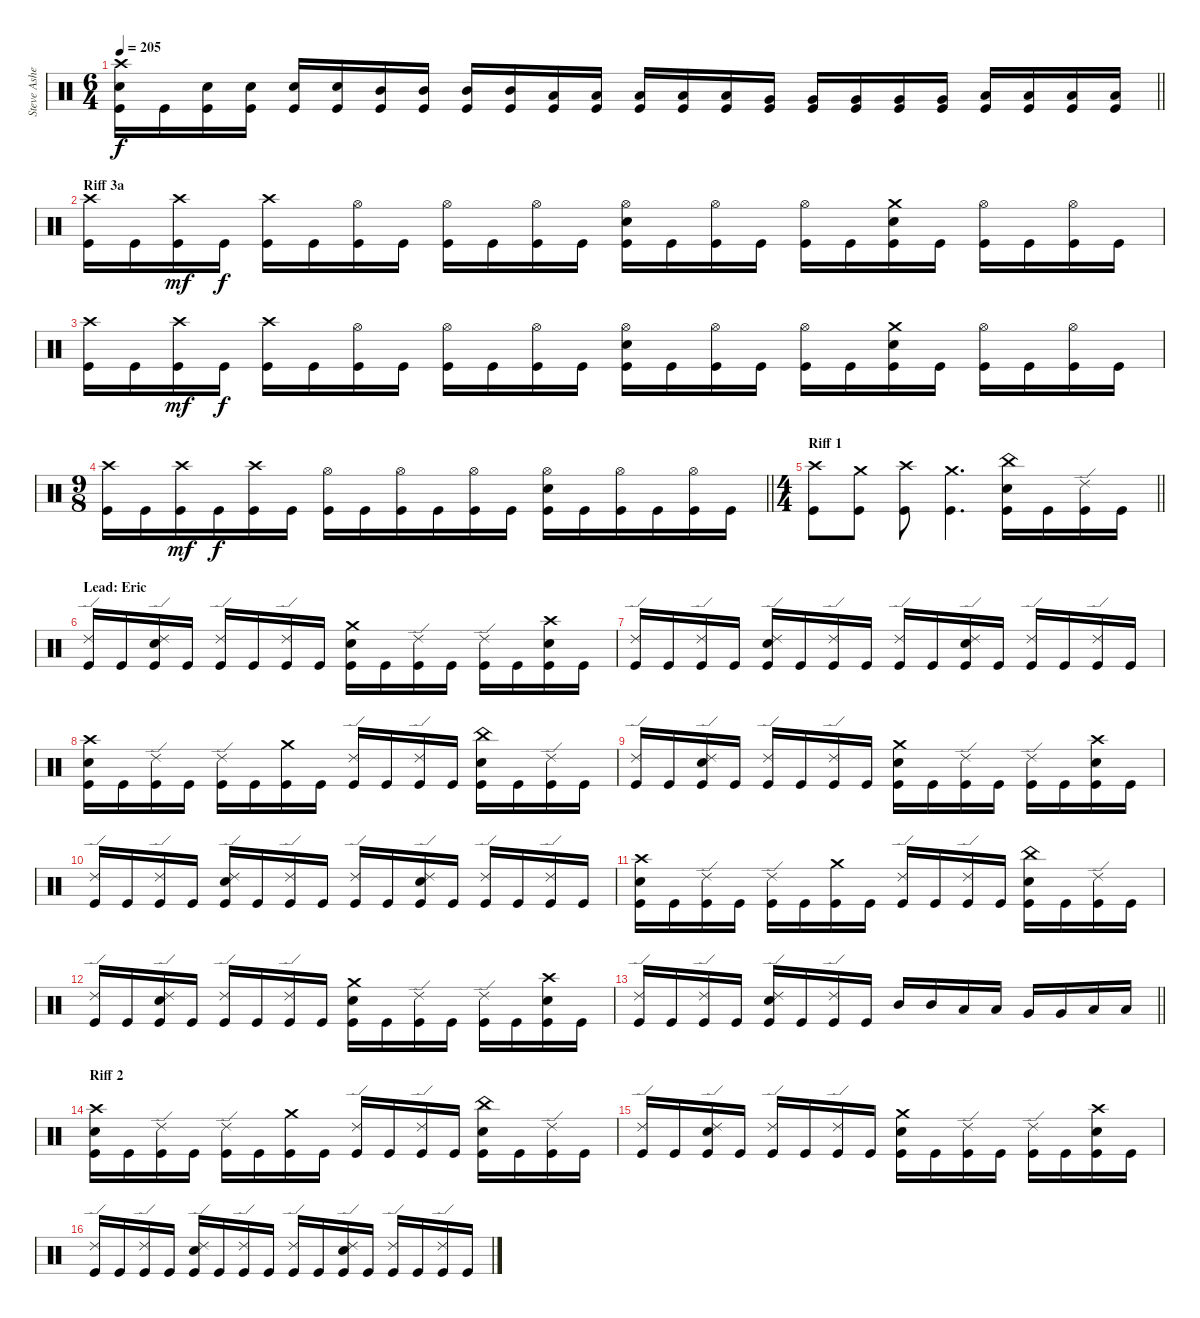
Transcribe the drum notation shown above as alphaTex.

\track ("Steve Asheim" "Steve Ashe") {instrument percussion}
\staff {score}
\articulation defaults
\ts (6 4)
\tempo 205
\clef neutral
\barLineRight lightlight
\ks c
("Crash high (hit)" "Snare (hit) 2" "Kick (hit)").16{dy f} "Kick (hit)".16 ("Snare (hit) 2" "Kick (hit)").16 ("Snare (hit) 2" "Kick (hit)").16 ("Snare (hit) 2" "Kick (hit)").16 ("Snare (hit) 2" "Kick (hit)").16 ("Mid Tom (hit)" "Kick (hit)").16 ("Mid Tom (hit)" "Kick (hit)").16 ("Mid Tom (hit)" "Kick (hit)").16 ("Mid Tom (hit)" "Kick (hit)").16 ("Low Tom (hit)" "Kick (hit)").16 ("Low Tom (hit)" "Kick (hit)").16 ("Low Tom (hit)" "Kick (hit)").16 ("Low Tom (hit)" "Kick (hit)").16 ("Low Tom (hit)" "Kick (hit)").16 ("Very Low Tom (hit)" "Kick (hit)").16 ("Very Low Tom (hit)" "Kick (hit)").16 ("Very Low Tom (hit)" "Kick (hit)").16 ("Very Low Tom (hit)" "Kick (hit)").16 ("Very Low Tom (hit)" "Kick (hit)").16 ("Low Floor Tom (hit)" "Kick (hit)").16 ("Low Floor Tom (hit)" "Kick (hit)").16 ("Low Floor Tom (hit)" "Kick (hit)").16 ("Low Floor Tom (hit)" "Kick (hit)").16 |
\section ("" "Riff 3a")
("Crash high (hit)" "Kick (hit)").16 "Kick (hit)".16 ("Crash high (hit)" "Kick (hit)").16{dy mf} "Kick (hit)".16{dy f} ("Crash high (hit)" "Kick (hit)").16 "Kick (hit)".16 ("Hi-Hat (open)" "Kick (hit)").16 "Kick (hit)".16 ("Hi-Hat (open)" "Kick (hit)").16 "Kick (hit)".16 ("Hi-Hat (open)" "Kick (hit)").16 "Kick (hit)".16 ("Hi-Hat (open)" "Snare (hit) 2" "Kick (hit)").16 "Kick (hit)".16 ("Hi-Hat (open)" "Kick (hit)").16 "Kick (hit)".16 ("Hi-Hat (open)" "Kick (hit)").16 "Kick (hit)".16 ("Crash medium (hit)" "Snare (hit) 2" "Kick (hit)").16 "Kick (hit)".16 ("Hi-Hat (open)" "Kick (hit)").16 "Kick (hit)".16 ("Hi-Hat (open)" "Kick (hit)").16 "Kick (hit)".16 |
("Crash high (hit)" "Kick (hit)").16 "Kick (hit)".16 ("Crash high (hit)" "Kick (hit)").16{dy mf} "Kick (hit)".16{dy f} ("Crash high (hit)" "Kick (hit)").16 "Kick (hit)".16 ("Hi-Hat (open)" "Kick (hit)").16 "Kick (hit)".16 ("Hi-Hat (open)" "Kick (hit)").16 "Kick (hit)".16 ("Hi-Hat (open)" "Kick (hit)").16 "Kick (hit)".16 ("Hi-Hat (open)" "Snare (hit) 2" "Kick (hit)").16 "Kick (hit)".16 ("Hi-Hat (open)" "Kick (hit)").16 "Kick (hit)".16 ("Hi-Hat (open)" "Kick (hit)").16 "Kick (hit)".16 ("Crash medium (hit)" "Snare (hit) 2" "Kick (hit)").16 "Kick (hit)".16 ("Hi-Hat (open)" "Kick (hit)").16 "Kick (hit)".16 ("Hi-Hat (open)" "Kick (hit)").16 "Kick (hit)".16 |
\ts (9 8)
\barLineRight lightlight
("Crash high (hit)" "Kick (hit)").16 "Kick (hit)".16 ("Crash high (hit)" "Kick (hit)").16{dy mf} "Kick (hit)".16{dy f} ("Crash high (hit)" "Kick (hit)").16 "Kick (hit)".16 ("Hi-Hat (open)" "Kick (hit)").16 "Kick (hit)".16 ("Hi-Hat (open)" "Kick (hit)").16 "Kick (hit)".16 ("Hi-Hat (open)" "Kick (hit)").16 "Kick (hit)".16 ("Hi-Hat (open)" "Snare (hit) 2" "Kick (hit)").16 "Kick (hit)".16 ("Hi-Hat (open)" "Kick (hit)").16 "Kick (hit)".16 ("Hi-Hat (open)" "Kick (hit)").16 "Kick (hit)".16 |
\ts (4 4)
\section ("" "Riff 1")
\barLineRight lightlight
("Crash high (hit)" "Kick (hit)").8 ("Crash medium (hit)" "Kick (hit)").8 ("Crash high (hit)" "Kick (hit)").8 ("Crash medium (hit)" "Kick (hit)").4{d} ("China (hit)" "Snare (hit) 2" "Kick (hit)").16 "Kick (hit)".16 ("Ride (edge) 2" "Kick (hit)").16 "Kick (hit)".16 |
\section ("" "Lead: Eric")
("Ride (edge) 2" "Kick (hit)").16 "Kick (hit)".16 ("Ride (edge) 2" "Snare (hit) 2" "Kick (hit)").16 "Kick (hit)".16 ("Ride (edge) 2" "Kick (hit)").16 "Kick (hit)".16 ("Ride (edge) 2" "Kick (hit)").16 "Kick (hit)".16 ("Crash medium (hit)" "Snare (hit) 2" "Kick (hit)").16 "Kick (hit)".16 ("Ride (edge) 2" "Kick (hit)").16 "Kick (hit)".16 ("Ride (edge) 2" "Kick (hit)").16 "Kick (hit)".16 ("Crash high (hit)" "Snare (hit) 2" "Kick (hit)").16 "Kick (hit)".16 |
("Ride (edge) 2" "Kick (hit)").16 "Kick (hit)".16 ("Ride (edge) 2" "Kick (hit)").16 "Kick (hit)".16 ("Ride (edge) 2" "Snare (hit) 2" "Kick (hit)").16 "Kick (hit)".16 ("Ride (edge) 2" "Kick (hit)").16 "Kick (hit)".16 ("Ride (edge) 2" "Kick (hit)").16 "Kick (hit)".16 ("Ride (edge) 2" "Snare (hit) 2" "Kick (hit)").16 "Kick (hit)".16 ("Ride (edge) 2" "Kick (hit)").16 "Kick (hit)".16 ("Ride (edge) 2" "Kick (hit)").16 "Kick (hit)".16 |
("Crash high (hit)" "Snare (hit) 2" "Kick (hit)").16 "Kick (hit)".16 ("Ride (edge) 2" "Kick (hit)").16 "Kick (hit)".16 ("Ride (edge) 2" "Kick (hit)").16 "Kick (hit)".16 ("Crash medium (hit)" "Kick (hit)").16 "Kick (hit)".16 ("Ride (edge) 2" "Kick (hit)").16 "Kick (hit)".16 ("Ride (edge) 2" "Kick (hit)").16 "Kick (hit)".16 ("China (hit)" "Snare (hit) 2" "Kick (hit)").16 "Kick (hit)".16 ("Ride (edge) 2" "Kick (hit)").16 "Kick (hit)".16 |
("Ride (edge) 2" "Kick (hit)").16 "Kick (hit)".16 ("Ride (edge) 2" "Snare (hit) 2" "Kick (hit)").16 "Kick (hit)".16 ("Ride (edge) 2" "Kick (hit)").16 "Kick (hit)".16 ("Ride (edge) 2" "Kick (hit)").16 "Kick (hit)".16 ("Crash medium (hit)" "Snare (hit) 2" "Kick (hit)").16 "Kick (hit)".16 ("Ride (edge) 2" "Kick (hit)").16 "Kick (hit)".16 ("Ride (edge) 2" "Kick (hit)").16 "Kick (hit)".16 ("Crash high (hit)" "Snare (hit) 2" "Kick (hit)").16 "Kick (hit)".16 |
("Ride (edge) 2" "Kick (hit)").16 "Kick (hit)".16 ("Ride (edge) 2" "Kick (hit)").16 "Kick (hit)".16 ("Ride (edge) 2" "Snare (hit) 2" "Kick (hit)").16 "Kick (hit)".16 ("Ride (edge) 2" "Kick (hit)").16 "Kick (hit)".16 ("Ride (edge) 2" "Kick (hit)").16 "Kick (hit)".16 ("Ride (edge) 2" "Snare (hit) 2" "Kick (hit)").16 "Kick (hit)".16 ("Ride (edge) 2" "Kick (hit)").16 "Kick (hit)".16 ("Ride (edge) 2" "Kick (hit)").16 "Kick (hit)".16 |
("Crash high (hit)" "Snare (hit) 2" "Kick (hit)").16 "Kick (hit)".16 ("Ride (edge) 2" "Kick (hit)").16 "Kick (hit)".16 ("Ride (edge) 2" "Kick (hit)").16 "Kick (hit)".16 ("Crash medium (hit)" "Kick (hit)").16 "Kick (hit)".16 ("Ride (edge) 2" "Kick (hit)").16 "Kick (hit)".16 ("Ride (edge) 2" "Kick (hit)").16 "Kick (hit)".16 ("China (hit)" "Snare (hit) 2" "Kick (hit)").16 "Kick (hit)".16 ("Ride (edge) 2" "Kick (hit)").16 "Kick (hit)".16 |
("Ride (edge) 2" "Kick (hit)").16 "Kick (hit)".16 ("Ride (edge) 2" "Snare (hit) 2" "Kick (hit)").16 "Kick (hit)".16 ("Ride (edge) 2" "Kick (hit)").16 "Kick (hit)".16 ("Ride (edge) 2" "Kick (hit)").16 "Kick (hit)".16 ("Crash medium (hit)" "Snare (hit) 2" "Kick (hit)").16 "Kick (hit)".16 ("Ride (edge) 2" "Kick (hit)").16 "Kick (hit)".16 ("Ride (edge) 2" "Kick (hit)").16 "Kick (hit)".16 ("Crash high (hit)" "Snare (hit) 2" "Kick (hit)").16 "Kick (hit)".16 |
\barLineRight lightlight
("Ride (edge) 2" "Kick (hit)").16 "Kick (hit)".16 ("Ride (edge) 2" "Kick (hit)").16 "Kick (hit)".16 ("Ride (edge) 2" "Snare (hit) 2" "Kick (hit)").16 "Kick (hit)".16 ("Ride (edge) 2" "Kick (hit)").16 "Kick (hit)".16 "Mid Tom (hit)".16 "Mid Tom (hit)".16 "Low Tom (hit)".16 "Low Tom (hit)".16 "Very Low Tom (hit)".16 "Very Low Tom (hit)".16 "Low Floor Tom (hit)".16 "Low Floor Tom (hit)".16 |
\section ("" "Riff 2")
("Crash high (hit)" "Snare (hit) 2" "Kick (hit)").16 "Kick (hit)".16 ("Ride (edge) 2" "Kick (hit)").16 "Kick (hit)".16 ("Ride (edge) 2" "Kick (hit)").16 "Kick (hit)".16 ("Crash medium (hit)" "Kick (hit)").16 "Kick (hit)".16 ("Ride (edge) 2" "Kick (hit)").16 "Kick (hit)".16 ("Ride (edge) 2" "Kick (hit)").16 "Kick (hit)".16 ("China (hit)" "Snare (hit) 2" "Kick (hit)").16 "Kick (hit)".16 ("Ride (edge) 2" "Kick (hit)").16 "Kick (hit)".16 |
("Ride (edge) 2" "Kick (hit)").16 "Kick (hit)".16 ("Ride (edge) 2" "Snare (hit) 2" "Kick (hit)").16 "Kick (hit)".16 ("Ride (edge) 2" "Kick (hit)").16 "Kick (hit)".16 ("Ride (edge) 2" "Kick (hit)").16 "Kick (hit)".16 ("Crash medium (hit)" "Snare (hit) 2" "Kick (hit)").16 "Kick (hit)".16 ("Ride (edge) 2" "Kick (hit)").16 "Kick (hit)".16 ("Ride (edge) 2" "Kick (hit)").16 "Kick (hit)".16 ("Crash high (hit)" "Snare (hit) 2" "Kick (hit)").16 "Kick (hit)".16 |
("Ride (edge) 2" "Kick (hit)").16 "Kick (hit)".16 ("Ride (edge) 2" "Kick (hit)").16 "Kick (hit)".16 ("Ride (edge) 2" "Snare (hit) 2" "Kick (hit)").16 "Kick (hit)".16 ("Ride (edge) 2" "Kick (hit)").16 "Kick (hit)".16 ("Ride (edge) 2" "Kick (hit)").16 "Kick (hit)".16 ("Ride (edge) 2" "Snare (hit) 2" "Kick (hit)").16 "Kick (hit)".16 ("Ride (edge) 2" "Kick (hit)").16 "Kick (hit)".16 ("Ride (edge) 2" "Kick (hit)").16 "Kick (hit)".16
